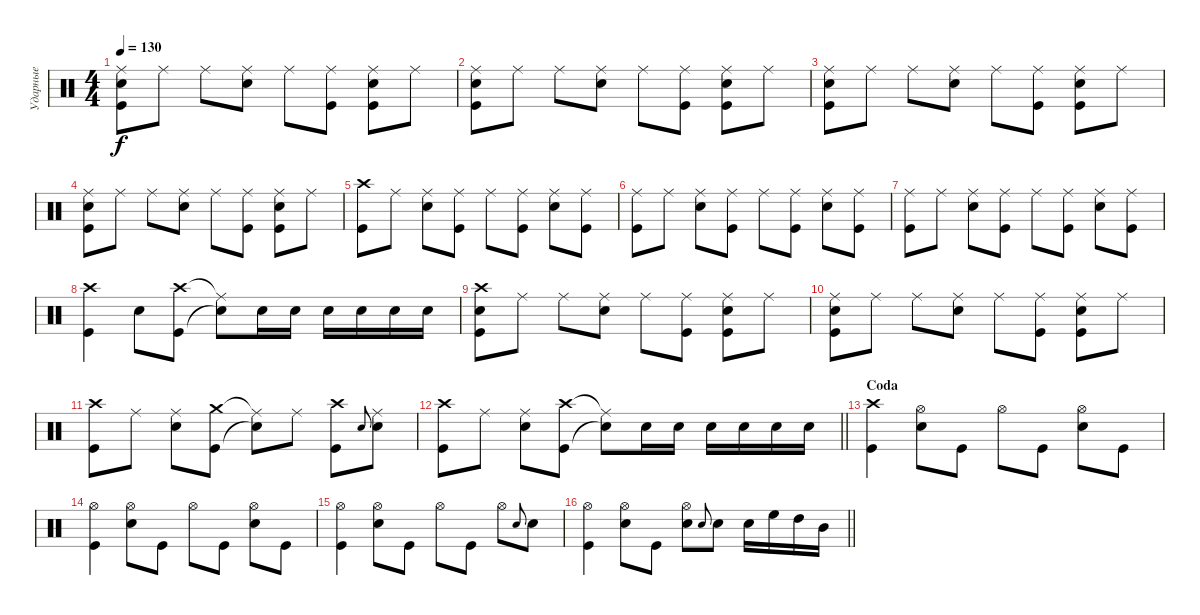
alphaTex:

\track ("Ударные" "Ударные") {instrument percussion}
\staff {score}
\articulation defaults
\ts (4 4)
\tempo 130
\clef neutral
\ks c
("Ride (middle)" "Snare (hit) 2" "Kick (hit)").8{dy f} "Ride (middle)".8 "Ride (middle)".8 ("Ride (middle)" "Snare (hit) 2").8 "Ride (middle)".8 ("Ride (middle)" "Kick (hit)").8 ("Ride (middle)" "Snare (hit) 2" "Kick (hit)").8 "Ride (middle)".8 |
("Ride (middle)" "Snare (hit) 2" "Kick (hit)").8 "Ride (middle)".8 "Ride (middle)".8 ("Ride (middle)" "Snare (hit) 2").8 "Ride (middle)".8 ("Ride (middle)" "Kick (hit)").8 ("Ride (middle)" "Snare (hit) 2" "Kick (hit)").8 "Ride (middle)".8 |
("Ride (middle)" "Snare (hit) 2" "Kick (hit)").8 "Ride (middle)".8 "Ride (middle)".8 ("Ride (middle)" "Snare (hit) 2").8 "Ride (middle)".8 ("Ride (middle)" "Kick (hit)").8 ("Ride (middle)" "Snare (hit) 2" "Kick (hit)").8 "Ride (middle)".8 |
("Ride (middle)" "Snare (hit) 2" "Kick (hit)").8 "Ride (middle)".8 "Ride (middle)".8 ("Ride (middle)" "Snare (hit) 2").8 "Ride (middle)".8 ("Ride (middle)" "Kick (hit)").8 ("Ride (middle)" "Snare (hit) 2" "Kick (hit)").8 "Ride (middle)".8 |
("Crash high (hit)" "Kick (hit)").8 "Ride (middle)".8 ("Ride (middle)" "Snare (hit) 2").8 ("Ride (middle)" "Kick (hit)").8 "Ride (middle)".8 ("Ride (middle)" "Kick (hit)").8 ("Ride (middle)" "Snare (hit) 2").8 ("Ride (middle)" "Kick (hit)").8 |
("Ride (middle)" "Kick (hit)").8 "Ride (middle)".8 ("Ride (middle)" "Snare (hit) 2").8 ("Ride (middle)" "Kick (hit)").8 "Ride (middle)".8 ("Ride (middle)" "Kick (hit)").8 ("Ride (middle)" "Snare (hit) 2").8 ("Ride (middle)" "Kick (hit)").8 |
("Ride (middle)" "Kick (hit)").8 "Ride (middle)".8 ("Ride (middle)" "Snare (hit) 2").8 ("Ride (middle)" "Kick (hit)").8 "Ride (middle)".8 ("Ride (middle)" "Kick (hit)").8 ("Ride (middle)" "Snare (hit) 2").8 ("Ride (middle)" "Kick (hit)").8 |
("Crash high (hit)" "Kick (hit)").4 "Snare (hit) 2".8 ("Crash high (hit)" "Kick (hit)").8 ("Ride (middle)"{t} "Snare (hit)"{t}).8 "Snare (hit) 2".16 "Snare (hit) 2".16 "Snare (hit) 2".16 "Snare (hit) 2".16 "Snare (hit) 2".16 "Snare (hit) 2".16 |
("Crash high (hit)" "Snare (hit) 2" "Kick (hit)").8 "Ride (middle)".8 "Ride (middle)".8 ("Ride (middle)" "Snare (hit) 2").8 "Ride (middle)".8 ("Ride (middle)" "Kick (hit)").8 ("Ride (middle)" "Snare (hit) 2" "Kick (hit)").8 "Ride (middle)".8 |
("Ride (middle)" "Snare (hit) 2" "Kick (hit)").8 "Ride (middle)".8 "Ride (middle)".8 ("Ride (middle)" "Snare (hit) 2").8 "Ride (middle)".8 ("Ride (middle)" "Kick (hit)").8 ("Ride (middle)" "Snare (hit) 2" "Kick (hit)").8 "Ride (middle)".8 |
("Crash high (hit)" "Kick (hit)").8 "Ride (middle)".8 ("Ride (middle)" "Snare (hit) 2").8 ("Crash medium (hit)" "Kick (hit)").8 ("Ride (middle)"{t} "Snare (hit)"{t}).8 "Ride (middle)".8 ("Crash high (hit)" "Kick (hit)").8 "Snare (hit) 2".8{gr onbeat} ("Ride (middle)" "Snare (hit) 2").8 |
\barLineRight lightlight
("Crash high (hit)" "Kick (hit)").8 "Ride (middle)".8 ("Ride (middle)" "Snare (hit) 2").8 ("Crash high (hit)" "Kick (hit)").8 ("Ride (middle)"{t} "Snare (hit)"{t}).8 "Snare (hit) 2".16 "Snare (hit) 2".16 "Snare (hit) 2".16 "Snare (hit) 2".16 "Snare (hit) 2".16 "Snare (hit) 2".16 |
\section ("" "Coda")
("Crash high (hit)" "Kick (hit)").4 ("Hi-Hat (open)" "Snare (hit) 2").8 "Kick (hit)".8 "Hi-Hat (open)".8 "Kick (hit)".8 ("Hi-Hat (open)" "Snare (hit) 2").8 "Kick (hit)".8 |
("Hi-Hat (open)" "Kick (hit)").4 ("Hi-Hat (open)" "Snare (hit) 2").8 "Kick (hit)".8 "Hi-Hat (open)".8 "Kick (hit)".8 ("Hi-Hat (open)" "Snare (hit) 2").8 "Kick (hit)".8 |
("Hi-Hat (open)" "Kick (hit)").4 ("Hi-Hat (open)" "Snare (hit) 2").8 "Kick (hit)".8 "Hi-Hat (open)".8 "Kick (hit)".8 "Hi-Hat (open)".8 "Snare (hit) 2".8{gr onbeat} "Snare (hit) 2".8 |
\barLineRight lightlight
("Hi-Hat (open)" "Kick (hit)").4 ("Hi-Hat (open)" "Snare (hit) 2").8 "Kick (hit)".8 ("Hi-Hat (open)" "Snare (hit) 2").8 "Snare (hit) 2".8{gr onbeat} "Snare (hit) 2".8 "Snare (hit) 2".16 "High Floor Tom (hit)".16 "High Tom (hit)".16 "Mid Tom (hit)".16
